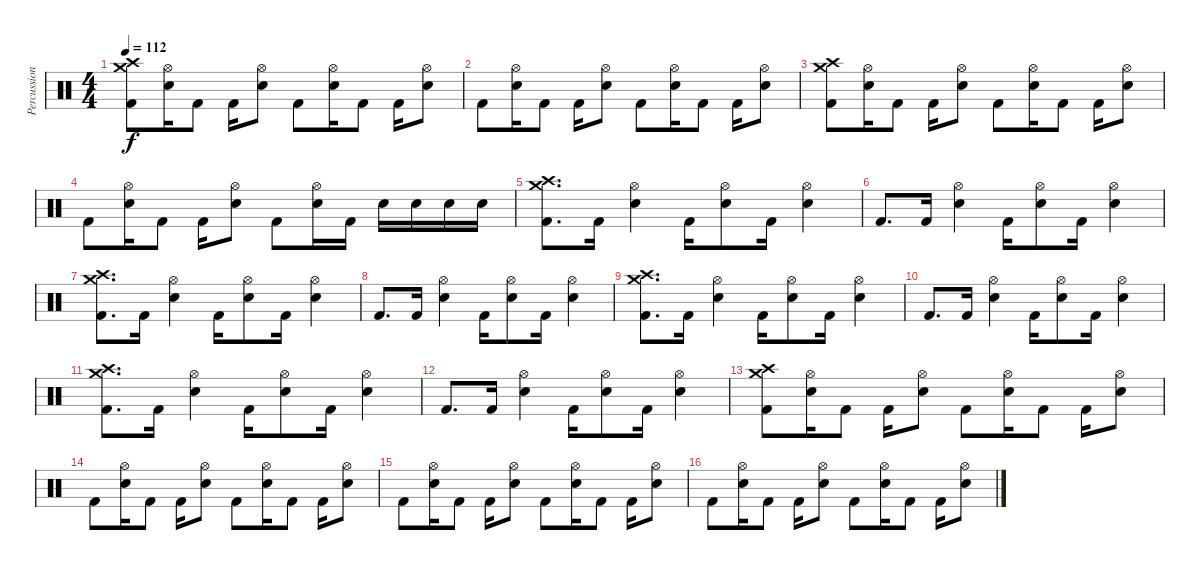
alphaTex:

\track ("Percussion" "Percussion") {instrument percussion}
\staff {score}
\articulation defaults
\ts (4 4)
\tempo 112
\clef neutral
\ks c
("Kick (hit) 2" "Crash high (hit)" "Crash medium (hit)").8{dy f} ("Electric Snare (hit)" "Hi-Hat (open)").16 "Kick (hit) 2".8 "Kick (hit) 2".16 ("Electric Snare (hit)" "Hi-Hat (open)").8 "Kick (hit) 2".8 ("Electric Snare (hit)" "Hi-Hat (open)").16 "Kick (hit) 2".8 "Kick (hit) 2".16 ("Electric Snare (hit)" "Hi-Hat (open)").8 |
"Kick (hit) 2".8 ("Electric Snare (hit)" "Hi-Hat (open)").16 "Kick (hit) 2".8 "Kick (hit) 2".16 ("Electric Snare (hit)" "Hi-Hat (open)").8 "Kick (hit) 2".8 ("Electric Snare (hit)" "Hi-Hat (open)").16 "Kick (hit) 2".8 "Kick (hit) 2".16 ("Electric Snare (hit)" "Hi-Hat (open)").8 |
("Kick (hit) 2" "Crash high (hit)" "Crash medium (hit)").8 ("Electric Snare (hit)" "Hi-Hat (open)").16 "Kick (hit) 2".8 "Kick (hit) 2".16 ("Electric Snare (hit)" "Hi-Hat (open)").8 "Kick (hit) 2".8 ("Electric Snare (hit)" "Hi-Hat (open)").16 "Kick (hit) 2".8 "Kick (hit) 2".16 ("Electric Snare (hit)" "Hi-Hat (open)").8 |
"Kick (hit) 2".8 ("Electric Snare (hit)" "Hi-Hat (open)").16 "Kick (hit) 2".8 "Kick (hit) 2".16 ("Electric Snare (hit)" "Hi-Hat (open)").8 "Kick (hit) 2".8 ("Electric Snare (hit)" "Hi-Hat (open)").16 "Kick (hit) 2".16 "Electric Snare (hit)".16 "Electric Snare (hit)".16 "Electric Snare (hit)".16 "Electric Snare (hit)".16 |
("Kick (hit) 2" "Crash high (hit)" "Crash medium (hit)").8{d} "Kick (hit) 2".16 ("Electric Snare (hit)" "Hi-Hat (open)").4 "Kick (hit) 2".16 ("Electric Snare (hit)" "Hi-Hat (open)").8 "Kick (hit) 2".16 ("Electric Snare (hit)" "Hi-Hat (open)").4 |
"Kick (hit) 2".8{d} "Kick (hit) 2".16 ("Electric Snare (hit)" "Hi-Hat (open)").4 "Kick (hit) 2".16 ("Electric Snare (hit)" "Hi-Hat (open)").8 "Kick (hit) 2".16 ("Electric Snare (hit)" "Hi-Hat (open)").4 |
("Kick (hit) 2" "Crash high (hit)" "Crash medium (hit)").8{d} "Kick (hit) 2".16 ("Electric Snare (hit)" "Hi-Hat (open)").4 "Kick (hit) 2".16 ("Electric Snare (hit)" "Hi-Hat (open)").8 "Kick (hit) 2".16 ("Electric Snare (hit)" "Hi-Hat (open)").4 |
"Kick (hit) 2".8{d} "Kick (hit) 2".16 ("Electric Snare (hit)" "Hi-Hat (open)").4 "Kick (hit) 2".16 ("Electric Snare (hit)" "Hi-Hat (open)").8 "Kick (hit) 2".16 ("Electric Snare (hit)" "Hi-Hat (open)").4 |
("Kick (hit) 2" "Crash high (hit)" "Crash medium (hit)").8{d} "Kick (hit) 2".16 ("Electric Snare (hit)" "Hi-Hat (open)").4 "Kick (hit) 2".16 ("Electric Snare (hit)" "Hi-Hat (open)").8 "Kick (hit) 2".16 ("Electric Snare (hit)" "Hi-Hat (open)").4 |
"Kick (hit) 2".8{d} "Kick (hit) 2".16 ("Electric Snare (hit)" "Hi-Hat (open)").4 "Kick (hit) 2".16 ("Electric Snare (hit)" "Hi-Hat (open)").8 "Kick (hit) 2".16 ("Electric Snare (hit)" "Hi-Hat (open)").4 |
("Kick (hit) 2" "Crash high (hit)" "Crash medium (hit)").8{d} "Kick (hit) 2".16 ("Electric Snare (hit)" "Hi-Hat (open)").4 "Kick (hit) 2".16 ("Electric Snare (hit)" "Hi-Hat (open)").8 "Kick (hit) 2".16 ("Electric Snare (hit)" "Hi-Hat (open)").4 |
"Kick (hit) 2".8{d} "Kick (hit) 2".16 ("Electric Snare (hit)" "Hi-Hat (open)").4 "Kick (hit) 2".16 ("Electric Snare (hit)" "Hi-Hat (open)").8 "Kick (hit) 2".16 ("Electric Snare (hit)" "Hi-Hat (open)").4 |
("Kick (hit) 2" "Crash high (hit)" "Crash medium (hit)").8 ("Electric Snare (hit)" "Hi-Hat (open)").16 "Kick (hit) 2".8 "Kick (hit) 2".16 ("Electric Snare (hit)" "Hi-Hat (open)").8 "Kick (hit) 2".8 ("Electric Snare (hit)" "Hi-Hat (open)").16 "Kick (hit) 2".8 "Kick (hit) 2".16 ("Electric Snare (hit)" "Hi-Hat (open)").8 |
"Kick (hit) 2".8 ("Electric Snare (hit)" "Hi-Hat (open)").16 "Kick (hit) 2".8 "Kick (hit) 2".16 ("Electric Snare (hit)" "Hi-Hat (open)").8 "Kick (hit) 2".8 ("Electric Snare (hit)" "Hi-Hat (open)").16 "Kick (hit) 2".8 "Kick (hit) 2".16 ("Electric Snare (hit)" "Hi-Hat (open)").8 |
"Kick (hit) 2".8 ("Electric Snare (hit)" "Hi-Hat (open)").16 "Kick (hit) 2".8 "Kick (hit) 2".16 ("Electric Snare (hit)" "Hi-Hat (open)").8 "Kick (hit) 2".8 ("Electric Snare (hit)" "Hi-Hat (open)").16 "Kick (hit) 2".8 "Kick (hit) 2".16 ("Electric Snare (hit)" "Hi-Hat (open)").8 |
"Kick (hit) 2".8 ("Electric Snare (hit)" "Hi-Hat (open)").16 "Kick (hit) 2".8 "Kick (hit) 2".16 ("Electric Snare (hit)" "Hi-Hat (open)").8 "Kick (hit) 2".8 ("Electric Snare (hit)" "Hi-Hat (open)").16 "Kick (hit) 2".8 "Kick (hit) 2".16 ("Electric Snare (hit)" "Hi-Hat (open)").8
